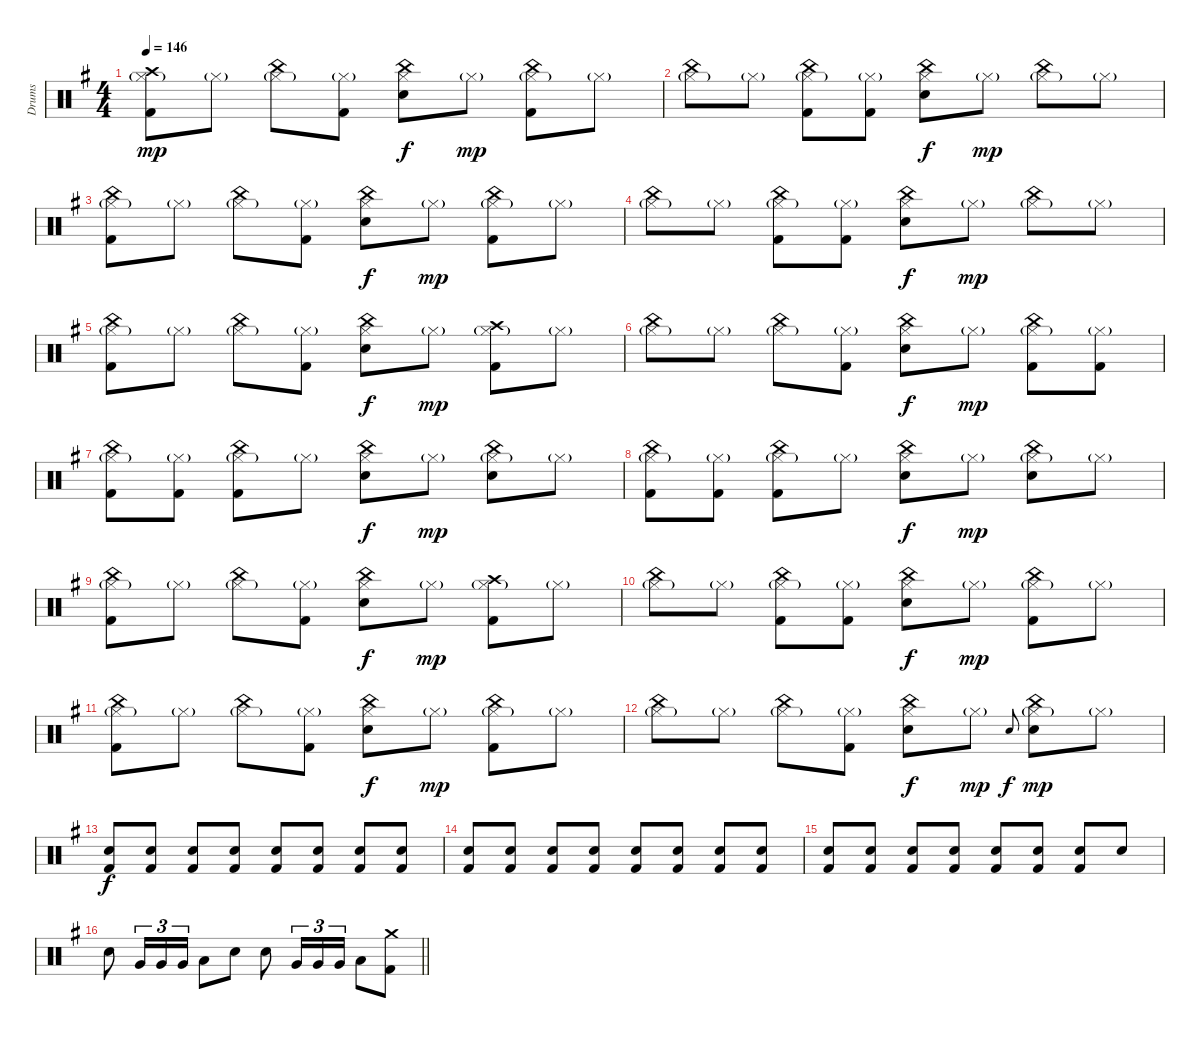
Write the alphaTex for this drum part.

\track ("Drums" "Drums") {instrument percussion}
\staff {score}
\articulation defaults
\ts (4 4)
\tempo 146
\clef neutral
\ks eminor
("Crash high (hit)" "Hi-Hat (closed)"{g} "Kick (hit) 2").8{dy mp} "Hi-Hat (closed)"{g}.8 ("China (hit)" "Hi-Hat (closed)"{g}).8 ("Hi-Hat (closed)"{g} "Kick (hit) 2").8 ("China (hit)" "Hi-Hat (closed)" "Snare (hit) 2").8{dy f} "Hi-Hat (closed)"{g}.8{dy mp} ("China (hit)" "Hi-Hat (closed)"{g} "Kick (hit) 2").8 "Hi-Hat (closed)"{g}.8 |
("China (hit)" "Hi-Hat (closed)"{g}).8 "Hi-Hat (closed)"{g}.8 ("China (hit)" "Hi-Hat (closed)"{g} "Kick (hit) 2").8 ("Hi-Hat (closed)"{g} "Kick (hit) 2").8 ("China (hit)" "Hi-Hat (closed)" "Snare (hit) 2").8{dy f} "Hi-Hat (closed)"{g}.8{dy mp} ("China (hit)" "Hi-Hat (closed)"{g}).8 "Hi-Hat (closed)"{g}.8 |
("China (hit)" "Hi-Hat (closed)"{g} "Kick (hit) 2").8 "Hi-Hat (closed)"{g}.8 ("China (hit)" "Hi-Hat (closed)"{g}).8 ("Hi-Hat (closed)"{g} "Kick (hit) 2").8 ("China (hit)" "Hi-Hat (closed)" "Snare (hit) 2").8{dy f} "Hi-Hat (closed)"{g}.8{dy mp} ("China (hit)" "Hi-Hat (closed)"{g} "Kick (hit) 2").8 "Hi-Hat (closed)"{g}.8 |
("China (hit)" "Hi-Hat (closed)"{g}).8 "Hi-Hat (closed)"{g}.8 ("China (hit)" "Hi-Hat (closed)"{g} "Kick (hit) 2").8 ("Hi-Hat (closed)"{g} "Kick (hit) 2").8 ("China (hit)" "Hi-Hat (closed)" "Snare (hit) 2").8{dy f} "Hi-Hat (closed)"{g}.8{dy mp} ("China (hit)" "Hi-Hat (closed)"{g}).8 "Hi-Hat (closed)"{g}.8 |
("China (hit)" "Hi-Hat (closed)"{g} "Kick (hit) 2").8 "Hi-Hat (closed)"{g}.8 ("China (hit)" "Hi-Hat (closed)"{g}).8 ("Hi-Hat (closed)"{g} "Kick (hit) 2").8 ("China (hit)" "Hi-Hat (closed)" "Snare (hit) 2").8{dy f} "Hi-Hat (closed)"{g}.8{dy mp} ("Crash high (hit)" "Hi-Hat (closed)"{g} "Kick (hit) 2").8 "Hi-Hat (closed)"{g}.8 |
("China (hit)" "Hi-Hat (closed)"{g}).8 "Hi-Hat (closed)"{g}.8 ("China (hit)" "Hi-Hat (closed)"{g}).8 ("Hi-Hat (closed)"{g} "Kick (hit) 2").8 ("China (hit)" "Hi-Hat (closed)" "Snare (hit) 2").8{dy f} "Hi-Hat (closed)"{g}.8{dy mp} ("China (hit)" "Hi-Hat (closed)"{g} "Kick (hit) 2").8 ("Hi-Hat (closed)"{g} "Kick (hit) 2").8 |
("China (hit)" "Hi-Hat (closed)"{g} "Kick (hit) 2").8 ("Hi-Hat (closed)"{g} "Kick (hit) 2").8 ("China (hit)" "Hi-Hat (closed)"{g} "Kick (hit) 2").8 "Hi-Hat (closed)"{g}.8 ("China (hit)" "Hi-Hat (closed)" "Snare (hit) 2").8{dy f} "Hi-Hat (closed)"{g}.8{dy mp} ("China (hit)" "Hi-Hat (closed)"{g} "Snare (hit) 2").8 "Hi-Hat (closed)"{g}.8 |
("China (hit)" "Hi-Hat (closed)"{g} "Kick (hit) 2").8 ("Hi-Hat (closed)"{g} "Kick (hit) 2").8 ("China (hit)" "Hi-Hat (closed)"{g} "Kick (hit) 2").8 "Hi-Hat (closed)"{g}.8 ("China (hit)" "Hi-Hat (closed)" "Snare (hit) 2").8{dy f} "Hi-Hat (closed)"{g}.8{dy mp} ("China (hit)" "Hi-Hat (closed)"{g} "Snare (hit) 2").8 "Hi-Hat (closed)"{g}.8 |
("China (hit)" "Hi-Hat (closed)"{g} "Kick (hit) 2").8 "Hi-Hat (closed)"{g}.8 ("China (hit)" "Hi-Hat (closed)"{g}).8 ("Hi-Hat (closed)"{g} "Kick (hit) 2").8 ("China (hit)" "Hi-Hat (closed)" "Snare (hit) 2").8{dy f} "Hi-Hat (closed)"{g}.8{dy mp} ("Crash high (hit)" "Hi-Hat (closed)"{g} "Kick (hit) 2").8 "Hi-Hat (closed)"{g}.8 |
("China (hit)" "Hi-Hat (closed)"{g}).8 "Hi-Hat (closed)"{g}.8 ("China (hit)" "Hi-Hat (closed)"{g} "Kick (hit) 2").8 ("Hi-Hat (closed)"{g} "Kick (hit) 2").8 ("China (hit)" "Hi-Hat (closed)" "Snare (hit) 2").8{dy f} "Hi-Hat (closed)"{g}.8{dy mp} ("China (hit)" "Hi-Hat (closed)"{g} "Kick (hit) 2").8 "Hi-Hat (closed)"{g}.8 |
("China (hit)" "Hi-Hat (closed)"{g} "Kick (hit) 2").8 "Hi-Hat (closed)"{g}.8 ("China (hit)" "Hi-Hat (closed)"{g}).8 ("Hi-Hat (closed)"{g} "Kick (hit) 2").8 ("China (hit)" "Hi-Hat (closed)" "Snare (hit) 2").8{dy f} "Hi-Hat (closed)"{g}.8{dy mp} ("China (hit)" "Hi-Hat (closed)"{g} "Kick (hit) 2").8 "Hi-Hat (closed)"{g}.8 |
("China (hit)" "Hi-Hat (closed)"{g}).8 "Hi-Hat (closed)"{g}.8 ("China (hit)" "Hi-Hat (closed)"{g}).8 ("Hi-Hat (closed)"{g} "Kick (hit) 2").8 ("China (hit)" "Hi-Hat (closed)" "Snare (hit) 2").8{dy f} "Hi-Hat (closed)"{g}.8{dy mp} "Snare (hit) 2".8{gr onbeat dy f} ("China (hit)" "Hi-Hat (closed)"{g} "Snare (hit) 2").8{dy mp} "Hi-Hat (closed)"{g}.8{volume 7} |
("Electric Snare (hit)" "Kick (hit) 2").8{dy f volume 11} ("Electric Snare (hit)" "Kick (hit) 2").8 ("Electric Snare (hit)" "Kick (hit) 2").8 ("Electric Snare (hit)" "Kick (hit) 2").8 ("Electric Snare (hit)" "Kick (hit) 2").8 ("Electric Snare (hit)" "Kick (hit) 2").8 ("Electric Snare (hit)" "Kick (hit) 2").8 ("Electric Snare (hit)" "Kick (hit) 2").8 |
("Electric Snare (hit)" "Kick (hit) 2").8 ("Electric Snare (hit)" "Kick (hit) 2").8 ("Electric Snare (hit)" "Kick (hit) 2").8 ("Electric Snare (hit)" "Kick (hit) 2").8 ("Electric Snare (hit)" "Kick (hit) 2").8 ("Electric Snare (hit)" "Kick (hit) 2").8 ("Electric Snare (hit)" "Kick (hit) 2").8 ("Electric Snare (hit)" "Kick (hit) 2").8 |
("Electric Snare (hit)" "Kick (hit) 2").8 ("Electric Snare (hit)" "Kick (hit) 2").8 ("Electric Snare (hit)" "Kick (hit) 2").8 ("Electric Snare (hit)" "Kick (hit) 2").8 ("Electric Snare (hit)" "Kick (hit) 2").8 ("Electric Snare (hit)" "Kick (hit) 2").8 ("Electric Snare (hit)" "Kick (hit) 2").8 "Electric Snare (hit)".8 |
\barLineRight lightlight "Electric Snare (hit)".8 "Very Low Tom (hit)".16{tu (3 2)} "Very Low Tom (hit)".16{tu (3 2)} "Very Low Tom (hit)".16{tu (3 2)} "Low Floor Tom (hit)".8 "Electric Snare (hit)".8 "Electric Snare (hit)".8 "Very Low Tom (hit)".16{tu (3 2)} "Very Low Tom (hit)".16{tu (3 2)} "Very Low Tom (hit)".16{tu (3 2)} "Low Floor Tom (hit)".8
("Crash medium (hit)" "Kick (hit) 2").8
